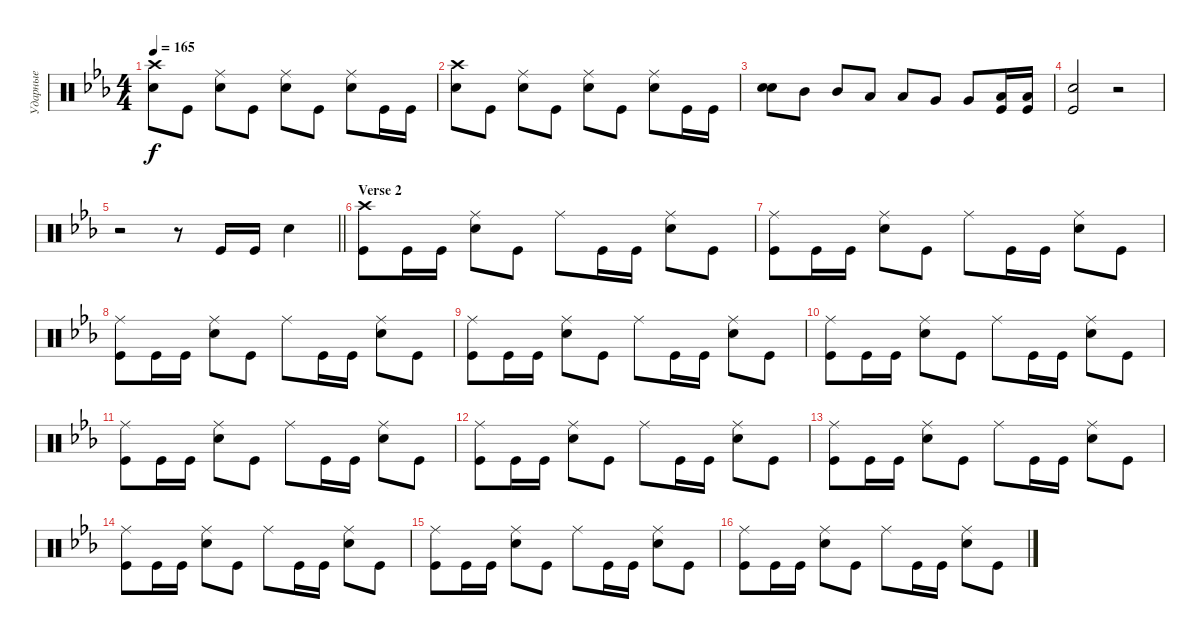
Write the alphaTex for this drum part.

\track ("Ударные" "Ударные") {instrument percussion}
\staff {score}
\articulation defaults
\ts (4 4)
\tempo 165
\clef neutral
\ks cminor
("Snare (hit) 2" "Crash high (hit)").8{dy f} "Kick (hit)".8 ("Snare (hit) 2" "Ride (middle)").8 "Kick (hit)".8 ("Snare (hit) 2" "Ride (middle)").8 "Kick (hit)".8 ("Snare (hit) 2" "Ride (middle)").8 "Kick (hit)".16 "Kick (hit)".16 |
("Snare (hit) 2" "Crash high (hit)").8 "Kick (hit)".8 ("Snare (hit) 2" "Ride (middle)").8 "Kick (hit)".8 ("Snare (hit) 2" "Ride (middle)").8 "Kick (hit)".8 ("Snare (hit) 2" "Ride (middle)").8 "Kick (hit)".16 "Kick (hit)".16 |
("Snare (hit) 2" "Snare (hit) 2").8{bd 240} "Mid Tom (hit)".8 "Mid Tom (hit)".8 "Low Tom (hit)".8 "Low Tom (hit)".8 "Very Low Tom (hit)".8 "Very Low Tom (hit)".8 ("Kick (hit)" "Low Floor Tom (hit)").16 ("Kick (hit)" "Low Floor Tom (hit)").16 |
("Kick (hit)" "Snare (hit) 2").2 r.2 |
\barLineRight lightlight
r.2 r.8 "Kick (hit)".16 "Kick (hit)".16 "Snare (hit) 2".4 |
\section ("" "Verse 2")
("Kick (hit)" "Crash high (hit)").8 "Kick (hit)".16 "Kick (hit)".16 ("Snare (hit) 2" "Ride (middle)").8 "Kick (hit)".8 "Ride (middle)".8 "Kick (hit)".16 "Kick (hit)".16 ("Snare (hit) 2" "Ride (middle)").8 "Kick (hit)".8 |
("Kick (hit)" "Ride (middle)").8 "Kick (hit)".16 "Kick (hit)".16 ("Snare (hit) 2" "Ride (middle)").8 "Kick (hit)".8 "Ride (middle)".8 "Kick (hit)".16 "Kick (hit)".16 ("Snare (hit) 2" "Ride (middle)").8 "Kick (hit)".8 |
("Kick (hit)" "Ride (middle)").8 "Kick (hit)".16 "Kick (hit)".16 ("Snare (hit) 2" "Ride (middle)").8 "Kick (hit)".8 "Ride (middle)".8 "Kick (hit)".16 "Kick (hit)".16 ("Snare (hit) 2" "Ride (middle)").8 "Kick (hit)".8 |
("Kick (hit)" "Ride (middle)").8 "Kick (hit)".16 "Kick (hit)".16 ("Snare (hit) 2" "Ride (middle)").8 "Kick (hit)".8 "Ride (middle)".8 "Kick (hit)".16 "Kick (hit)".16 ("Snare (hit) 2" "Ride (middle)").8 "Kick (hit)".8 |
("Kick (hit)" "Ride (middle)").8 "Kick (hit)".16 "Kick (hit)".16 ("Snare (hit) 2" "Ride (middle)").8 "Kick (hit)".8 "Ride (middle)".8 "Kick (hit)".16 "Kick (hit)".16 ("Snare (hit) 2" "Ride (middle)").8 "Kick (hit)".8 |
("Kick (hit)" "Ride (middle)").8 "Kick (hit)".16 "Kick (hit)".16 ("Snare (hit) 2" "Ride (middle)").8 "Kick (hit)".8 "Ride (middle)".8 "Kick (hit)".16 "Kick (hit)".16 ("Snare (hit) 2" "Ride (middle)").8 "Kick (hit)".8 |
("Kick (hit)" "Ride (middle)").8 "Kick (hit)".16 "Kick (hit)".16 ("Snare (hit) 2" "Ride (middle)").8 "Kick (hit)".8 "Ride (middle)".8 "Kick (hit)".16 "Kick (hit)".16 ("Snare (hit) 2" "Ride (middle)").8 "Kick (hit)".8 |
("Kick (hit)" "Ride (middle)").8 "Kick (hit)".16 "Kick (hit)".16 ("Snare (hit) 2" "Ride (middle)").8 "Kick (hit)".8 "Ride (middle)".8 "Kick (hit)".16 "Kick (hit)".16 ("Snare (hit) 2" "Ride (middle)").8 "Kick (hit)".8 |
("Kick (hit)" "Ride (middle)").8 "Kick (hit)".16 "Kick (hit)".16 ("Snare (hit) 2" "Ride (middle)").8 "Kick (hit)".8 "Ride (middle)".8 "Kick (hit)".16 "Kick (hit)".16 ("Snare (hit) 2" "Ride (middle)").8 "Kick (hit)".8 |
("Kick (hit)" "Ride (middle)").8 "Kick (hit)".16 "Kick (hit)".16 ("Snare (hit) 2" "Ride (middle)").8 "Kick (hit)".8 "Ride (middle)".8 "Kick (hit)".16 "Kick (hit)".16 ("Snare (hit) 2" "Ride (middle)").8 "Kick (hit)".8 |
("Kick (hit)" "Ride (middle)").8 "Kick (hit)".16 "Kick (hit)".16 ("Snare (hit) 2" "Ride (middle)").8 "Kick (hit)".8 "Ride (middle)".8 "Kick (hit)".16 "Kick (hit)".16 ("Snare (hit) 2" "Ride (middle)").8 "Kick (hit)".8
